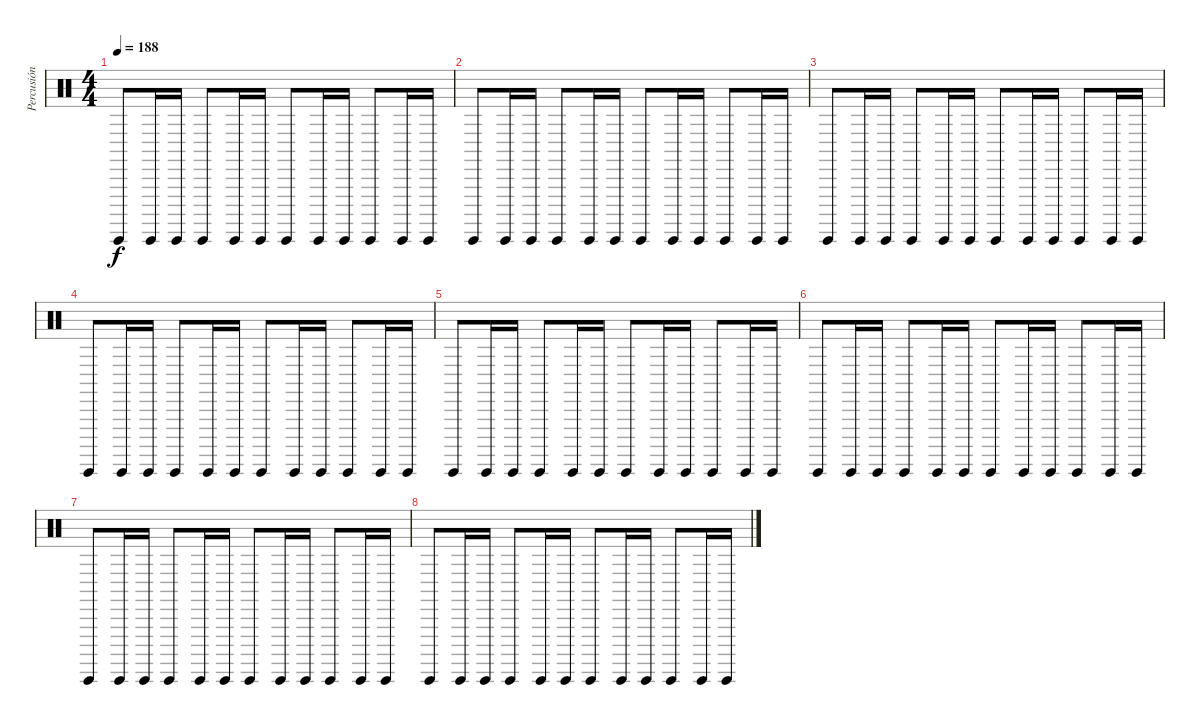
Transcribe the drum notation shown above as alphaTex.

\track ("Percusión" "Percusión") {instrument percussion}
\staff {score}
\articulation defaults
\ts (4 4)
\tempo 188
\clef neutral
\ks c "Guiro (hit)".8{dy f} "Guiro (hit)".16 "Guiro (hit)".16 "Guiro (hit)".8 "Guiro (hit)".16 "Guiro (hit)".16 "Guiro (hit)".8 "Guiro (hit)".16 "Guiro (hit)".16 "Guiro (hit)".8 "Guiro (hit)".16 "Guiro (hit)".16
|
"Guiro (hit)".8 "Guiro (hit)".16 "Guiro (hit)".16 "Guiro (hit)".8 "Guiro (hit)".16 "Guiro (hit)".16 "Guiro (hit)".8 "Guiro (hit)".16 "Guiro (hit)".16 "Guiro (hit)".8 "Guiro (hit)".16 "Guiro (hit)".16 |
"Guiro (hit)".8 "Guiro (hit)".16 "Guiro (hit)".16 "Guiro (hit)".8 "Guiro (hit)".16 "Guiro (hit)".16 "Guiro (hit)".8 "Guiro (hit)".16 "Guiro (hit)".16 "Guiro (hit)".8 "Guiro (hit)".16 "Guiro (hit)".16 |
"Guiro (hit)".8 "Guiro (hit)".16 "Guiro (hit)".16 "Guiro (hit)".8 "Guiro (hit)".16 "Guiro (hit)".16 "Guiro (hit)".8 "Guiro (hit)".16 "Guiro (hit)".16 "Guiro (hit)".8 "Guiro (hit)".16 "Guiro (hit)".16 |
"Guiro (hit)".8 "Guiro (hit)".16 "Guiro (hit)".16 "Guiro (hit)".8 "Guiro (hit)".16 "Guiro (hit)".16 "Guiro (hit)".8 "Guiro (hit)".16 "Guiro (hit)".16 "Guiro (hit)".8 "Guiro (hit)".16 "Guiro (hit)".16 |
"Guiro (hit)".8 "Guiro (hit)".16 "Guiro (hit)".16 "Guiro (hit)".8 "Guiro (hit)".16 "Guiro (hit)".16 "Guiro (hit)".8 "Guiro (hit)".16 "Guiro (hit)".16 "Guiro (hit)".8 "Guiro (hit)".16 "Guiro (hit)".16 |
"Guiro (hit)".8 "Guiro (hit)".16 "Guiro (hit)".16 "Guiro (hit)".8 "Guiro (hit)".16 "Guiro (hit)".16 "Guiro (hit)".8 "Guiro (hit)".16 "Guiro (hit)".16 "Guiro (hit)".8 "Guiro (hit)".16 "Guiro (hit)".16 |
"Guiro (hit)".8 "Guiro (hit)".16 "Guiro (hit)".16 "Guiro (hit)".8 "Guiro (hit)".16 "Guiro (hit)".16 "Guiro (hit)".8 "Guiro (hit)".16 "Guiro (hit)".16 "Guiro (hit)".8 "Guiro (hit)".16 "Guiro (hit)".16
